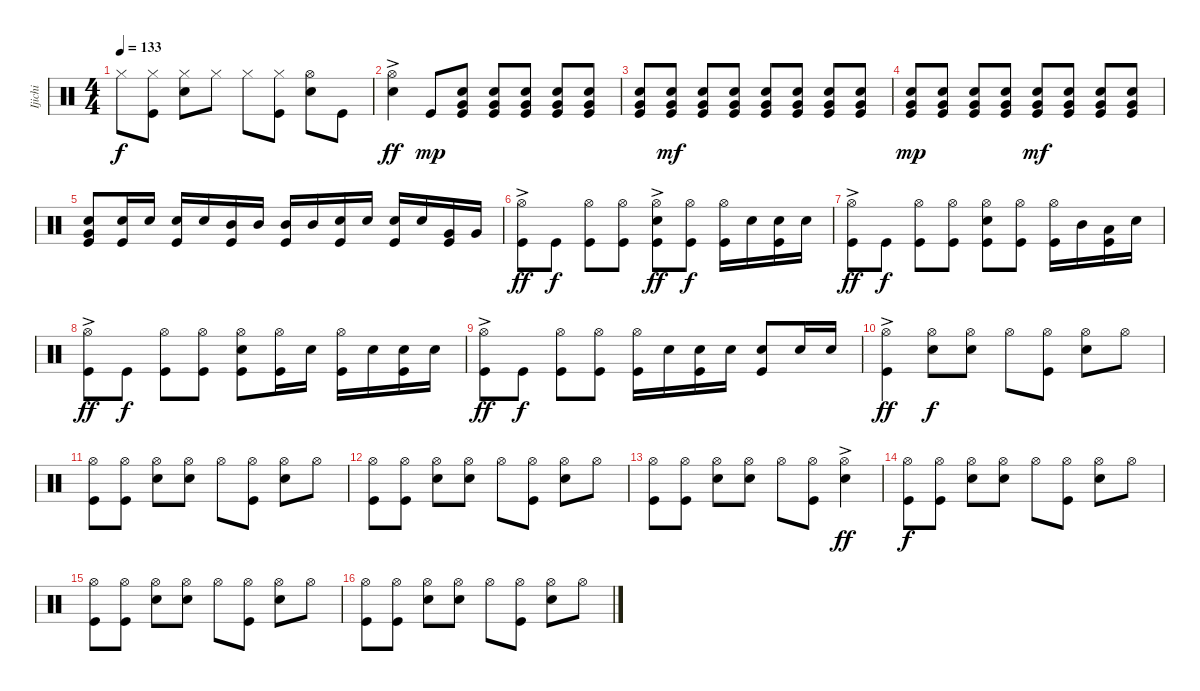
\track ("Ijichi" "Ijichi") {instrument percussion}
\staff {score}
\articulation defaults
\ts (4 4)
\tempo 133
\clef neutral
\ks c "Hi-Hat (closed)".8{dy f}
("Hi-Hat (closed)" "Kick (hit)").8 ("Hi-Hat (closed)" "Snare (hit) 2").8 "Hi-Hat (closed)".8 "Hi-Hat (closed)".8 ("Hi-Hat (closed)" "Kick (hit)").8 ("Hi-Hat (open)" "Snare (hit) 2").8 "Kick (hit)".8 |
("Hi-Hat (open)"{ac} "Snare (hit) 2").4{dy ff} "Kick (hit)".8{dy mp} ("Snare (hit) 2" "Very Low Tom (hit)" "Kick (hit)").8 ("Snare (hit) 2" "Very Low Tom (hit)" "Kick (hit)").8 ("Snare (hit) 2" "Very Low Tom (hit)" "Kick (hit)").8 ("Snare (hit) 2" "Very Low Tom (hit)" "Kick (hit)").8 ("Snare (hit) 2" "Very Low Tom (hit)" "Kick (hit)").8 |
("Snare (hit) 2" "Very Low Tom (hit)" "Kick (hit)").8 ("Snare (hit) 2" "Very Low Tom (hit)" "Kick (hit)").8{dy mf} ("Snare (hit) 2" "Very Low Tom (hit)" "Kick (hit)").8 ("Snare (hit) 2" "Very Low Tom (hit)" "Kick (hit)").8 ("Snare (hit) 2" "Very Low Tom (hit)" "Kick (hit)").8 ("Snare (hit) 2" "Very Low Tom (hit)" "Kick (hit)").8 ("Snare (hit) 2" "Very Low Tom (hit)" "Kick (hit)").8 ("Snare (hit) 2" "Very Low Tom (hit)" "Kick (hit)").8 |
("Snare (hit) 2" "Very Low Tom (hit)" "Kick (hit)").8{dy mp} ("Snare (hit) 2" "Very Low Tom (hit)" "Kick (hit)").8 ("Snare (hit) 2" "Very Low Tom (hit)" "Kick (hit)").8 ("Snare (hit) 2" "Very Low Tom (hit)" "Kick (hit)").8 ("Snare (hit) 2" "Very Low Tom (hit)" "Kick (hit)").8{dy mf} ("Snare (hit) 2" "Very Low Tom (hit)" "Kick (hit)").8 ("Snare (hit) 2" "Very Low Tom (hit)" "Kick (hit)").8 ("Snare (hit) 2" "Very Low Tom (hit)" "Kick (hit)").8 |
("Snare (hit) 2" "Very Low Tom (hit)" "Kick (hit)").8 ("Snare (hit) 2" "Kick (hit)").16 "Snare (hit) 2".16 ("Snare (hit) 2" "Kick (hit)").16 "Snare (hit) 2".16 ("Mid Tom (hit)" "Kick (hit)").16 "Mid Tom (hit)".16 ("Mid Tom (hit)" "Kick (hit)").16 "Mid Tom (hit)".16 ("Snare (hit) 2" "Kick (hit)").16 "Snare (hit) 2".16 ("Snare (hit) 2" "Kick (hit)").16 "Snare (hit) 2".16 ("Very Low Tom (hit)" "Kick (hit)").16 "Very Low Tom (hit)".16 |
("Hi-Hat (open)"{ac} "Kick (hit)").8{dy ff} "Kick (hit)".8{dy f} ("Hi-Hat (open)" "Kick (hit)").8 ("Hi-Hat (open)" "Kick (hit)").8 ("Hi-Hat (open)"{ac} "Snare (hit) 2" "Kick (hit)").8{dy ff} ("Hi-Hat (open)" "Kick (hit)").8{dy f} ("Hi-Hat (open)" "Kick (hit)").16 "Snare (hit) 2".16 ("Snare (hit) 2" "Kick (hit)").16 "Snare (hit) 2".16 |
("Hi-Hat (open)"{ac} "Kick (hit)").8{dy ff} "Kick (hit)".8{dy f} ("Hi-Hat (open)" "Kick (hit)").8 ("Hi-Hat (open)" "Kick (hit)").8 ("Hi-Hat (open)" "Snare (hit) 2" "Kick (hit)").8 ("Hi-Hat (open)" "Kick (hit)").8 ("Hi-Hat (open)" "Kick (hit)").16 "Mid Tom (hit)".16 ("Low Tom (hit)" "Kick (hit)").16 "Snare (hit) 2".16 |
("Hi-Hat (open)"{ac} "Kick (hit)").8{dy ff} "Kick (hit)".8{dy f} ("Hi-Hat (open)" "Kick (hit)").8 ("Hi-Hat (open)" "Kick (hit)").8 ("Hi-Hat (open)" "Snare (hit) 2" "Kick (hit)").8 ("Hi-Hat (open)" "Kick (hit)").16 "Snare (hit) 2".16 ("Hi-Hat (open)" "Kick (hit)").16 "Snare (hit) 2".16 ("Snare (hit) 2" "Kick (hit)").16 "Snare (hit) 2".16 |
("Hi-Hat (open)"{ac} "Kick (hit)").8{dy ff} "Kick (hit)".8{dy f} ("Hi-Hat (open)" "Kick (hit)").8 ("Hi-Hat (open)" "Kick (hit)").8 ("Hi-Hat (open)" "Kick (hit)").16 "Snare (hit) 2".16 ("Snare (hit) 2" "Kick (hit)").16 "Snare (hit) 2".16 ("Snare (hit) 2" "Kick (hit)").8 "Snare (hit) 2".16 "Snare (hit) 2".16 |
("Hi-Hat (open)"{ac} "Kick (hit)").4{dy ff} ("Hi-Hat (open)" "Snare (hit) 2").8{dy f} ("Hi-Hat (open)" "Snare (hit) 2").8 "Hi-Hat (open)".8 ("Hi-Hat (open)" "Kick (hit)").8 ("Hi-Hat (open)" "Snare (hit) 2").8 "Hi-Hat (open)".8 |
("Hi-Hat (open)" "Kick (hit)").8 ("Hi-Hat (open)" "Kick (hit)").8 ("Hi-Hat (open)" "Snare (hit) 2").8 ("Hi-Hat (open)" "Snare (hit) 2").8 "Hi-Hat (open)".8 ("Hi-Hat (open)" "Kick (hit)").8 ("Hi-Hat (open)" "Snare (hit) 2").8 "Hi-Hat (open)".8 |
("Hi-Hat (open)" "Kick (hit)").8 ("Hi-Hat (open)" "Kick (hit)").8 ("Hi-Hat (open)" "Snare (hit) 2").8 ("Hi-Hat (open)" "Snare (hit) 2").8 "Hi-Hat (open)".8 ("Hi-Hat (open)" "Kick (hit)").8 ("Hi-Hat (open)" "Snare (hit) 2").8 "Hi-Hat (open)".8 |
("Hi-Hat (open)" "Kick (hit)").8 ("Hi-Hat (open)" "Kick (hit)").8 ("Hi-Hat (open)" "Snare (hit) 2").8 ("Hi-Hat (open)" "Snare (hit) 2").8 "Hi-Hat (open)".8 ("Hi-Hat (open)" "Kick (hit)").8 ("Hi-Hat (open)"{ac} "Snare (hit) 2").4{dy ff} |
("Hi-Hat (open)" "Kick (hit)").8{dy f} ("Hi-Hat (open)" "Kick (hit)").8 ("Hi-Hat (open)" "Snare (hit) 2").8 ("Hi-Hat (open)" "Snare (hit) 2").8 "Hi-Hat (open)".8 ("Hi-Hat (open)" "Kick (hit)").8 ("Hi-Hat (open)" "Snare (hit) 2").8 "Hi-Hat (open)".8 |
("Hi-Hat (open)" "Kick (hit)").8 ("Hi-Hat (open)" "Kick (hit)").8 ("Hi-Hat (open)" "Snare (hit) 2").8 ("Hi-Hat (open)" "Snare (hit) 2").8 "Hi-Hat (open)".8 ("Hi-Hat (open)" "Kick (hit)").8 ("Hi-Hat (open)" "Snare (hit) 2").8 "Hi-Hat (open)".8 |
("Hi-Hat (open)" "Kick (hit)").8 ("Hi-Hat (open)" "Kick (hit)").8 ("Hi-Hat (open)" "Snare (hit) 2").8 ("Hi-Hat (open)" "Snare (hit) 2").8 "Hi-Hat (open)".8 ("Hi-Hat (open)" "Kick (hit)").8 ("Hi-Hat (open)" "Snare (hit) 2").8 "Hi-Hat (open)".8
